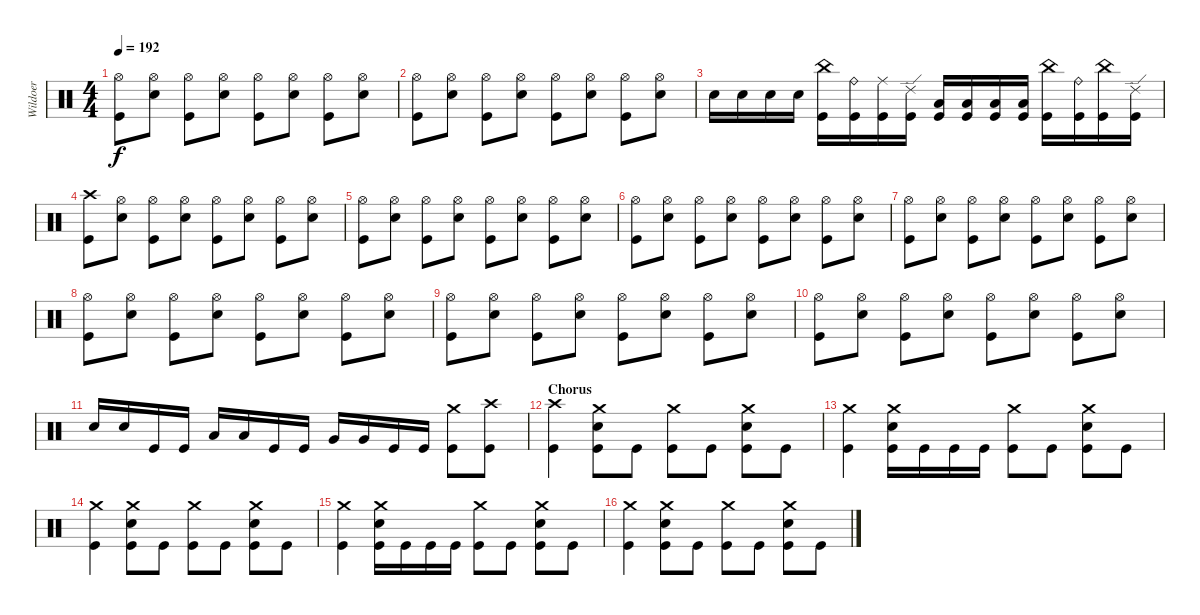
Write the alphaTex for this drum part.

\track ("Wildoer" "Wildoer") {instrument percussion}
\staff {score}
\articulation defaults
\ts (4 4)
\tempo 192
\clef neutral
\ks c
("Hi-Hat (open)" "Kick (hit)").8{dy f} ("Hi-Hat (open)" "Electric Snare (hit)").8 ("Hi-Hat (open)" "Kick (hit)").8 ("Hi-Hat (open)" "Electric Snare (hit)").8 ("Hi-Hat (open)" "Kick (hit)").8 ("Hi-Hat (open)" "Electric Snare (hit)").8 ("Hi-Hat (open)" "Kick (hit)").8 ("Hi-Hat (open)" "Electric Snare (hit)").8 |
("Hi-Hat (open)" "Kick (hit)").8 ("Hi-Hat (open)" "Electric Snare (hit)").8 ("Hi-Hat (open)" "Kick (hit)").8 ("Hi-Hat (open)" "Electric Snare (hit)").8 ("Hi-Hat (open)" "Kick (hit)").8 ("Hi-Hat (open)" "Electric Snare (hit)").8 ("Hi-Hat (open)" "Kick (hit)").8 ("Hi-Hat (open)" "Electric Snare (hit)").8 |
"Electric Snare (hit)".16 "Electric Snare (hit)".16 "Electric Snare (hit)".16 "Electric Snare (hit)".16 ("China (hit)" "Kick (hit)").16 ("Ride (bell)" "Kick (hit)").16 ("Ride (middle)" "Kick (hit)").16 ("Ride (edge) 2" "Kick (hit)").16 ("Low Tom (hit)" "Kick (hit)").16 ("Low Tom (hit)" "Kick (hit)").16 ("Low Floor Tom (hit)" "Kick (hit)").16 ("Low Floor Tom (hit)" "Kick (hit)").16 ("China (hit)" "Kick (hit)").16 ("Ride (bell)" "Kick (hit)").16 ("China (hit)" "Kick (hit)").16 ("Ride (edge) 2" "Kick (hit)").16 |
("Crash high (hit)" "Kick (hit)").8 ("Hi-Hat (open)" "Electric Snare (hit)").8 ("Hi-Hat (open)" "Kick (hit)").8 ("Hi-Hat (open)" "Electric Snare (hit)").8 ("Hi-Hat (open)" "Kick (hit)").8 ("Hi-Hat (open)" "Electric Snare (hit)").8 ("Hi-Hat (open)" "Kick (hit)").8 ("Hi-Hat (open)" "Electric Snare (hit)").8 |
("Hi-Hat (open)" "Kick (hit)").8 ("Hi-Hat (open)" "Electric Snare (hit)").8 ("Hi-Hat (open)" "Kick (hit)").8 ("Hi-Hat (open)" "Electric Snare (hit)").8 ("Hi-Hat (open)" "Kick (hit)").8 ("Hi-Hat (open)" "Electric Snare (hit)").8 ("Hi-Hat (open)" "Kick (hit)").8 ("Hi-Hat (open)" "Electric Snare (hit)").8 |
("Hi-Hat (open)" "Kick (hit)").8 ("Hi-Hat (open)" "Electric Snare (hit)").8 ("Hi-Hat (open)" "Kick (hit)").8 ("Hi-Hat (open)" "Electric Snare (hit)").8 ("Hi-Hat (open)" "Kick (hit)").8 ("Hi-Hat (open)" "Electric Snare (hit)").8 ("Hi-Hat (open)" "Kick (hit)").8 ("Hi-Hat (open)" "Electric Snare (hit)").8 |
("Hi-Hat (open)" "Kick (hit)").8 ("Hi-Hat (open)" "Electric Snare (hit)").8 ("Hi-Hat (open)" "Kick (hit)").8 ("Hi-Hat (open)" "Electric Snare (hit)").8 ("Hi-Hat (open)" "Kick (hit)").8 ("Hi-Hat (open)" "Electric Snare (hit)").8 ("Hi-Hat (open)" "Kick (hit)").8 ("Hi-Hat (open)" "Electric Snare (hit)").8 |
("Hi-Hat (open)" "Kick (hit)").8 ("Hi-Hat (open)" "Electric Snare (hit)").8 ("Hi-Hat (open)" "Kick (hit)").8 ("Hi-Hat (open)" "Electric Snare (hit)").8 ("Hi-Hat (open)" "Kick (hit)").8 ("Hi-Hat (open)" "Electric Snare (hit)").8 ("Hi-Hat (open)" "Kick (hit)").8 ("Hi-Hat (open)" "Electric Snare (hit)").8 |
("Hi-Hat (open)" "Kick (hit)").8 ("Hi-Hat (open)" "Electric Snare (hit)").8 ("Hi-Hat (open)" "Kick (hit)").8 ("Hi-Hat (open)" "Electric Snare (hit)").8 ("Hi-Hat (open)" "Kick (hit)").8 ("Hi-Hat (open)" "Electric Snare (hit)").8 ("Hi-Hat (open)" "Kick (hit)").8 ("Hi-Hat (open)" "Electric Snare (hit)").8 |
("Hi-Hat (open)" "Kick (hit)").8 ("Hi-Hat (open)" "Electric Snare (hit)").8 ("Hi-Hat (open)" "Kick (hit)").8 ("Hi-Hat (open)" "Electric Snare (hit)").8 ("Hi-Hat (open)" "Kick (hit)").8 ("Hi-Hat (open)" "Electric Snare (hit)").8 ("Hi-Hat (open)" "Kick (hit)").8 ("Hi-Hat (open)" "Electric Snare (hit)").8 |
"Electric Snare (hit)".16 "Electric Snare (hit)".16 "Kick (hit)".16 "Kick (hit)".16 "Low Tom (hit)".16 "Low Tom (hit)".16 "Kick (hit)".16 "Kick (hit)".16 "Very Low Tom (hit)".16 "Very Low Tom (hit)".16 "Kick (hit)".16 "Kick (hit)".16 ("Crash medium (hit)" "Kick (hit)").8 ("Crash high (hit)" "Kick (hit)").8 |
\section ("" "Chorus")
("Crash high (hit)" "Kick (hit)").4 ("Crash medium (hit)" "Electric Snare (hit)" "Kick (hit)").8 "Kick (hit)".8 ("Crash medium (hit)" "Kick (hit)").8 "Kick (hit)".8 ("Crash medium (hit)" "Electric Snare (hit)" "Kick (hit)").8 "Kick (hit)".8 |
("Crash medium (hit)" "Kick (hit)").4 ("Crash medium (hit)" "Electric Snare (hit)" "Kick (hit)").16 "Kick (hit)".16 "Kick (hit)".16 "Kick (hit)".16 ("Crash medium (hit)" "Kick (hit)").8 "Kick (hit)".8 ("Crash medium (hit)" "Electric Snare (hit)" "Kick (hit)").8 "Kick (hit)".8 |
("Crash medium (hit)" "Kick (hit)").4 ("Crash medium (hit)" "Electric Snare (hit)" "Kick (hit)").8 "Kick (hit)".8 ("Crash medium (hit)" "Kick (hit)").8 "Kick (hit)".8 ("Crash medium (hit)" "Electric Snare (hit)" "Kick (hit)").8 "Kick (hit)".8 |
("Crash medium (hit)" "Kick (hit)").4 ("Crash medium (hit)" "Electric Snare (hit)" "Kick (hit)").16 "Kick (hit)".16 "Kick (hit)".16 "Kick (hit)".16 ("Crash medium (hit)" "Kick (hit)").8 "Kick (hit)".8 ("Crash medium (hit)" "Electric Snare (hit)" "Kick (hit)").8 "Kick (hit)".8 |
("Crash medium (hit)" "Kick (hit)").4 ("Crash medium (hit)" "Electric Snare (hit)" "Kick (hit)").8 "Kick (hit)".8 ("Crash medium (hit)" "Kick (hit)").8 "Kick (hit)".8 ("Crash medium (hit)" "Electric Snare (hit)" "Kick (hit)").8 "Kick (hit)".8
